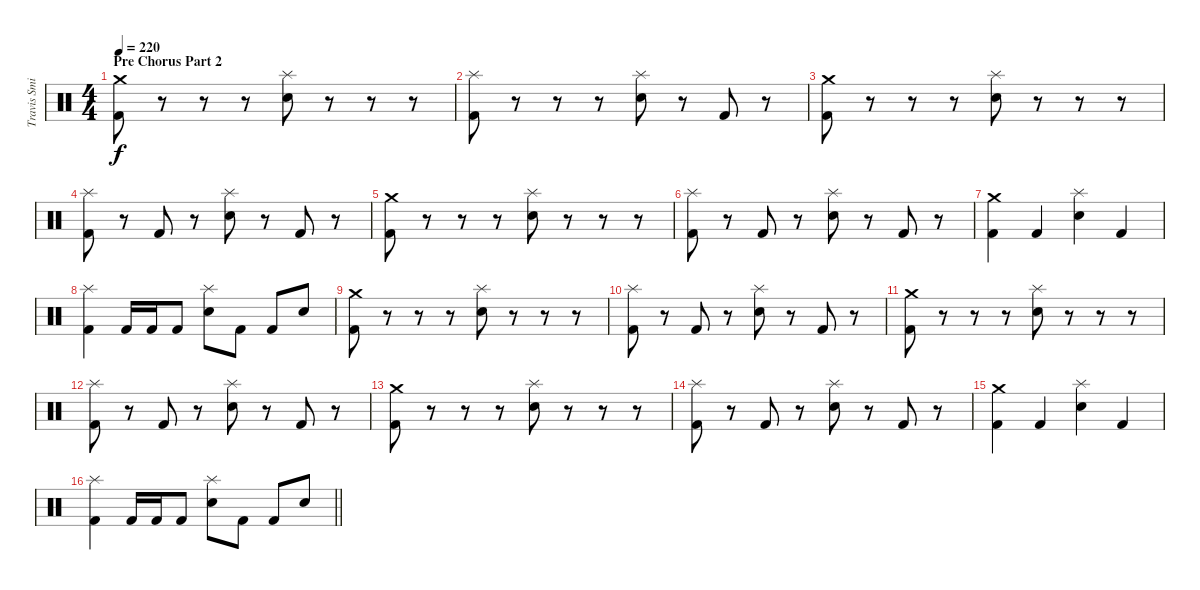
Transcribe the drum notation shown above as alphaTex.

\track ("Travis Smith" "Travis Smi") {instrument percussion}
\staff {score}
\articulation defaults
\ts (4 4)
\section ("" "Pre Chorus Part 2")
\tempo 220
\clef neutral
\ks c
("Crash medium (hit)" "Kick (hit) 2").8{dy f} r.8 r.8 r.8 ("Splash (hit)" "Electric Snare (hit)").8 r.8 r.8 r.8 |
("Splash (hit)" "Kick (hit) 2").8 r.8 r.8 r.8 ("Splash (hit)" "Electric Snare (hit)").8 r.8 "Kick (hit) 2".8 r.8 |
("Crash medium (hit)" "Kick (hit) 2").8 r.8 r.8 r.8 ("Splash (hit)" "Electric Snare (hit)").8 r.8 r.8 r.8 |
("Splash (hit)" "Kick (hit) 2").8 r.8 "Kick (hit) 2".8 r.8 ("Splash (hit)" "Electric Snare (hit)").8 r.8 "Kick (hit) 2".8 r.8 |
("Crash medium (hit)" "Kick (hit) 2").8 r.8 r.8 r.8 ("Splash (hit)" "Electric Snare (hit)").8 r.8 r.8 r.8 |
("Splash (hit)" "Kick (hit) 2").8 r.8 "Kick (hit) 2".8 r.8 ("Splash (hit)" "Electric Snare (hit)").8 r.8 "Kick (hit) 2".8 r.8 |
("Crash medium (hit)" "Kick (hit) 2").4 "Kick (hit) 2".4 ("Splash (hit)" "Electric Snare (hit)").4 "Kick (hit) 2".4 |
("Splash (hit)" "Kick (hit) 2").4 "Kick (hit) 2".16 "Kick (hit) 2".16 "Kick (hit) 2".8 ("Splash (hit)" "Electric Snare (hit)").8 "Kick (hit) 2".8 "Kick (hit) 2".8 "Electric Snare (hit)".8 |
("Crash medium (hit)" "Kick (hit) 2").8 r.8 r.8 r.8 ("Splash (hit)" "Electric Snare (hit)").8 r.8 r.8 r.8 |
("Splash (hit)" "Kick (hit) 2").8 r.8 "Kick (hit) 2".8 r.8 ("Splash (hit)" "Electric Snare (hit)").8 r.8 "Kick (hit) 2".8 r.8 |
("Crash medium (hit)" "Kick (hit) 2").8 r.8 r.8 r.8 ("Splash (hit)" "Electric Snare (hit)").8 r.8 r.8 r.8 |
("Splash (hit)" "Kick (hit) 2").8 r.8 "Kick (hit) 2".8 r.8 ("Splash (hit)" "Electric Snare (hit)").8 r.8 "Kick (hit) 2".8 r.8 |
("Crash medium (hit)" "Kick (hit) 2").8 r.8 r.8 r.8 ("Splash (hit)" "Electric Snare (hit)").8 r.8 r.8 r.8 |
("Splash (hit)" "Kick (hit) 2").8 r.8 "Kick (hit) 2".8 r.8 ("Splash (hit)" "Electric Snare (hit)").8 r.8 "Kick (hit) 2".8 r.8 |
("Crash medium (hit)" "Kick (hit) 2").4 "Kick (hit) 2".4 ("Splash (hit)" "Electric Snare (hit)").4 "Kick (hit) 2".4 |
\barLineRight lightlight
("Splash (hit)" "Kick (hit) 2").4 "Kick (hit) 2".16 "Kick (hit) 2".16 "Kick (hit) 2".8 ("Splash (hit)" "Electric Snare (hit)").8 "Kick (hit) 2".8 "Kick (hit) 2".8 "Electric Snare (hit)".8
